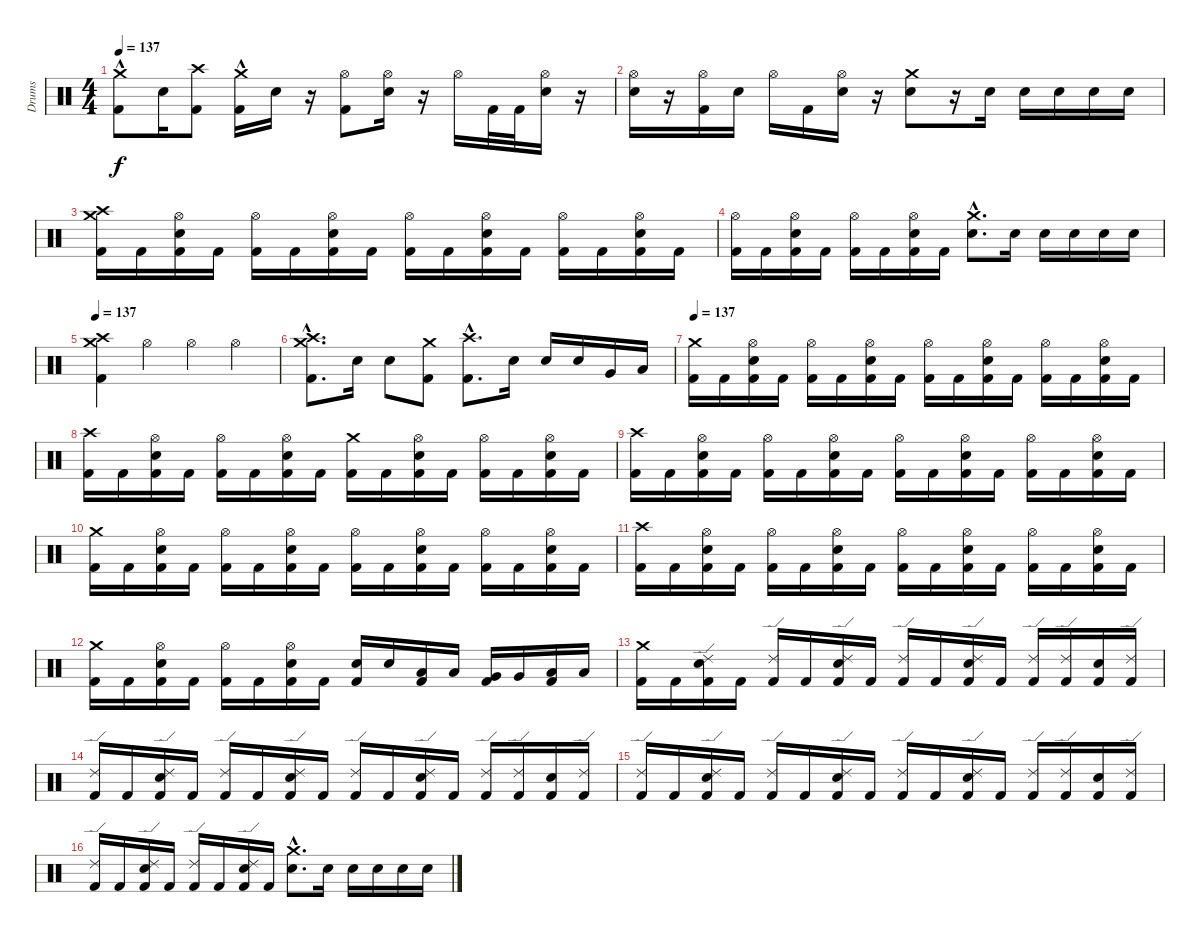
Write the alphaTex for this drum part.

\track ("Drums" "Drums") {instrument percussion}
\staff {score}
\articulation defaults
\ts (4 4)
\tempo 137
\clef neutral
\ks c
("Crash medium (hit)"{hac} "Kick (hit) 2").8{dy f} "Snare (hit) 2".16 ("Crash high (hit)" "Kick (hit) 2").8 ("Crash medium (hit)"{hac} "Kick (hit) 2").16 "Snare (hit) 2".16 r.16 ("Hi-Hat (open)" "Kick (hit) 2").8 ("Hi-Hat (open)" "Snare (hit) 2").16 r.16 "Hi-Hat (open)".16 "Kick (hit) 2".32 "Kick (hit) 2".32 ("Hi-Hat (open)" "Snare (hit) 2").16 r.16 |
("Hi-Hat (open)" "Snare (hit) 2").16 r.16 ("Hi-Hat (open)" "Kick (hit) 2").16 "Snare (hit) 2".16 "Hi-Hat (open)".16 "Kick (hit) 2".16 ("Hi-Hat (open)" "Snare (hit) 2").16 r.16 ("Crash medium (hit)" "Snare (hit) 2").8 r.16 "Snare (hit) 2".16 "Snare (hit) 2".16 "Snare (hit) 2".16 "Snare (hit) 2".16 "Snare (hit) 2".16 |
("Crash medium (hit)" "Crash high (hit)" "Kick (hit) 2").16 "Kick (hit) 2".16 ("Hi-Hat (open)" "Snare (hit) 2" "Kick (hit) 2").16 "Kick (hit) 2".16 ("Hi-Hat (open)" "Kick (hit) 2").16 "Kick (hit) 2".16 ("Hi-Hat (open)" "Snare (hit) 2" "Kick (hit) 2").16 "Kick (hit) 2".16 ("Hi-Hat (open)" "Kick (hit) 2").16 "Kick (hit) 2".16 ("Hi-Hat (open)" "Snare (hit) 2" "Kick (hit) 2").16 "Kick (hit) 2".16 ("Hi-Hat (open)" "Kick (hit) 2").16 "Kick (hit) 2".16 ("Hi-Hat (open)" "Snare (hit) 2" "Kick (hit) 2").16 "Kick (hit) 2".16 |
("Hi-Hat (open)" "Kick (hit) 2").16 "Kick (hit) 2".16 ("Hi-Hat (open)" "Snare (hit) 2" "Kick (hit) 2").16 "Kick (hit) 2".16 ("Hi-Hat (open)" "Kick (hit) 2").16 "Kick (hit) 2".16 ("Hi-Hat (open)" "Snare (hit) 2" "Kick (hit) 2").16 "Kick (hit) 2".16 ("Crash medium (hit)" "Snare (hit) 2"{hac}).8{d} "Snare (hit) 2".16 "Snare (hit) 2".16 "Snare (hit) 2".16 "Snare (hit) 2".16 "Snare (hit) 2".16 |
\tempo 137
("Crash high (hit)" "Crash medium (hit)" "Kick (hit) 2").4 "Hi-Hat (open)".4 "Hi-Hat (open)".4 "Hi-Hat (open)".4 |
("Crash high (hit)" "Crash medium (hit)" "Kick (hit) 2"{hac}).8{d} "Snare (hit) 2".16 "Snare (hit) 2".8 ("Crash medium (hit)" "Kick (hit) 2").8 ("Crash high (hit)"{hac} "Kick (hit) 2"{hac}).8{d} "Snare (hit) 2".16 "Snare (hit) 2".16 "Snare (hit) 2".16 "Very Low Tom (hit)".16 "Low Floor Tom (hit)".16 |
\tempo 137
("Crash medium (hit)" "Kick (hit) 2").16 "Kick (hit) 2".16 ("Hi-Hat (open)" "Snare (hit) 2" "Kick (hit) 2").16 "Kick (hit) 2".16 ("Hi-Hat (open)" "Kick (hit) 2").16 "Kick (hit) 2".16 ("Hi-Hat (open)" "Snare (hit) 2" "Kick (hit) 2").16 "Kick (hit) 2".16 ("Hi-Hat (open)" "Kick (hit) 2").16 "Kick (hit) 2".16 ("Hi-Hat (open)" "Snare (hit) 2" "Kick (hit) 2").16 "Kick (hit) 2".16 ("Hi-Hat (open)" "Kick (hit) 2").16 "Kick (hit) 2".16 ("Hi-Hat (open)" "Snare (hit) 2" "Kick (hit) 2").16 "Kick (hit) 2".16 |
("Crash high (hit)" "Kick (hit) 2").16 "Kick (hit) 2".16 ("Hi-Hat (open)" "Snare (hit) 2" "Kick (hit) 2").16 "Kick (hit) 2".16 ("Hi-Hat (open)" "Kick (hit) 2").16 "Kick (hit) 2".16 ("Hi-Hat (open)" "Snare (hit) 2" "Kick (hit) 2").16 "Kick (hit) 2".16 ("Crash medium (hit)" "Kick (hit) 2").16 "Kick (hit) 2".16 ("Hi-Hat (open)" "Snare (hit) 2" "Kick (hit) 2").16 "Kick (hit) 2".16 ("Hi-Hat (open)" "Kick (hit) 2").16 "Kick (hit) 2".16 ("Hi-Hat (open)" "Snare (hit) 2" "Kick (hit) 2").16 "Kick (hit) 2".16 |
("Crash high (hit)" "Kick (hit) 2").16 "Kick (hit) 2".16 ("Hi-Hat (open)" "Snare (hit) 2" "Kick (hit) 2").16 "Kick (hit) 2".16 ("Hi-Hat (open)" "Kick (hit) 2").16 "Kick (hit) 2".16 ("Hi-Hat (open)" "Snare (hit) 2" "Kick (hit) 2").16 "Kick (hit) 2".16 ("Hi-Hat (open)" "Kick (hit) 2").16 "Kick (hit) 2".16 ("Hi-Hat (open)" "Snare (hit) 2" "Kick (hit) 2").16 "Kick (hit) 2".16 ("Hi-Hat (open)" "Kick (hit) 2").16 "Kick (hit) 2".16 ("Hi-Hat (open)" "Snare (hit) 2" "Kick (hit) 2").16 "Kick (hit) 2".16 |
("Crash medium (hit)" "Kick (hit) 2").16 "Kick (hit) 2".16 ("Hi-Hat (open)" "Snare (hit) 2" "Kick (hit) 2").16 "Kick (hit) 2".16 ("Hi-Hat (open)" "Kick (hit) 2").16 "Kick (hit) 2".16 ("Hi-Hat (open)" "Snare (hit) 2" "Kick (hit) 2").16 "Kick (hit) 2".16 ("Hi-Hat (open)" "Kick (hit) 2").16 "Kick (hit) 2".16 ("Hi-Hat (open)" "Snare (hit) 2" "Kick (hit) 2").16 "Kick (hit) 2".16 ("Hi-Hat (open)" "Kick (hit) 2").16 "Kick (hit) 2".16 ("Hi-Hat (open)" "Snare (hit) 2" "Kick (hit) 2").16 "Kick (hit) 2".16 |
("Crash high (hit)" "Kick (hit) 2").16 "Kick (hit) 2".16 ("Hi-Hat (open)" "Snare (hit) 2" "Kick (hit) 2").16 "Kick (hit) 2".16 ("Hi-Hat (open)" "Kick (hit) 2").16 "Kick (hit) 2".16 ("Hi-Hat (open)" "Snare (hit) 2" "Kick (hit) 2").16 "Kick (hit) 2".16 ("Hi-Hat (open)" "Kick (hit) 2").16 "Kick (hit) 2".16 ("Hi-Hat (open)" "Snare (hit) 2" "Kick (hit) 2").16 "Kick (hit) 2".16 ("Hi-Hat (open)" "Kick (hit) 2").16 "Kick (hit) 2".16 ("Hi-Hat (open)" "Snare (hit) 2" "Kick (hit) 2").16 "Kick (hit) 2".16 |
("Crash medium (hit)" "Kick (hit) 2").16 "Kick (hit) 2".16 ("Hi-Hat (open)" "Snare (hit) 2" "Kick (hit) 2").16 "Kick (hit) 2".16 ("Hi-Hat (open)" "Kick (hit) 2").16 "Kick (hit) 2".16 ("Hi-Hat (open)" "Snare (hit) 2" "Kick (hit) 2").16 "Kick (hit) 2".16 ("Snare (hit) 2" "Kick (hit) 2").16 "Snare (hit) 2".16 ("Low Tom (hit)" "Kick (hit) 2").16 "Low Tom (hit)".16 ("Very Low Tom (hit)" "Kick (hit) 2").16 "Very Low Tom (hit)".16 ("Low Floor Tom (hit)" "Kick (hit) 2").16 "Low Floor Tom (hit)".16 |
("Crash medium (hit)" "Kick (hit) 2").16 "Kick (hit) 2".16 ("Ride (edge) 2" "Snare (hit) 2" "Kick (hit) 2").16 "Kick (hit) 2".16 ("Ride (edge) 2" "Kick (hit) 2").16 "Kick (hit) 2".16 ("Ride (edge) 2" "Snare (hit) 2" "Kick (hit) 2").16 "Kick (hit) 2".16 ("Ride (edge) 2" "Kick (hit) 2").16 "Kick (hit) 2".16 ("Ride (edge) 2" "Snare (hit) 2" "Kick (hit) 2").16 "Kick (hit) 2".16 ("Ride (edge) 2" "Kick (hit) 2").16 ("Ride (edge) 2" "Kick (hit) 2").16 ("Snare (hit) 2" "Kick (hit) 2").16 ("Ride (edge) 2" "Kick (hit) 2").16 |
("Ride (edge) 2" "Kick (hit) 2").16 "Kick (hit) 2".16 ("Ride (edge) 2" "Snare (hit) 2" "Kick (hit) 2").16 "Kick (hit) 2".16 ("Ride (edge) 2" "Kick (hit) 2").16 "Kick (hit) 2".16 ("Ride (edge) 2" "Snare (hit) 2" "Kick (hit) 2").16 "Kick (hit) 2".16 ("Ride (edge) 2" "Kick (hit) 2").16 "Kick (hit) 2".16 ("Ride (edge) 2" "Snare (hit) 2" "Kick (hit) 2").16 "Kick (hit) 2".16 ("Ride (edge) 2" "Kick (hit) 2").16 ("Ride (edge) 2" "Kick (hit) 2").16 ("Snare (hit) 2" "Kick (hit) 2").16 ("Ride (edge) 2" "Kick (hit) 2").16 |
("Ride (edge) 2" "Kick (hit) 2").16 "Kick (hit) 2".16 ("Ride (edge) 2" "Snare (hit) 2" "Kick (hit) 2").16 "Kick (hit) 2".16 ("Ride (edge) 2" "Kick (hit) 2").16 "Kick (hit) 2".16 ("Ride (edge) 2" "Snare (hit) 2" "Kick (hit) 2").16 "Kick (hit) 2".16 ("Ride (edge) 2" "Kick (hit) 2").16 "Kick (hit) 2".16 ("Ride (edge) 2" "Snare (hit) 2" "Kick (hit) 2").16 "Kick (hit) 2".16 ("Ride (edge) 2" "Kick (hit) 2").16 ("Ride (edge) 2" "Kick (hit) 2").16 ("Snare (hit) 2" "Kick (hit) 2").16 ("Ride (edge) 2" "Kick (hit) 2").16 |
("Ride (edge) 2" "Kick (hit) 2").16 "Kick (hit) 2".16 ("Ride (edge) 2" "Snare (hit) 2" "Kick (hit) 2").16 "Kick (hit) 2".16 ("Ride (edge) 2" "Kick (hit) 2").16 "Kick (hit) 2".16 ("Ride (edge) 2" "Snare (hit) 2" "Kick (hit) 2").16 "Kick (hit) 2".16 ("Crash medium (hit)" "Snare (hit) 2"{hac}).8{d} "Snare (hit) 2".16 "Snare (hit) 2".16 "Snare (hit) 2".16 "Snare (hit) 2".16 "Snare (hit) 2".16
